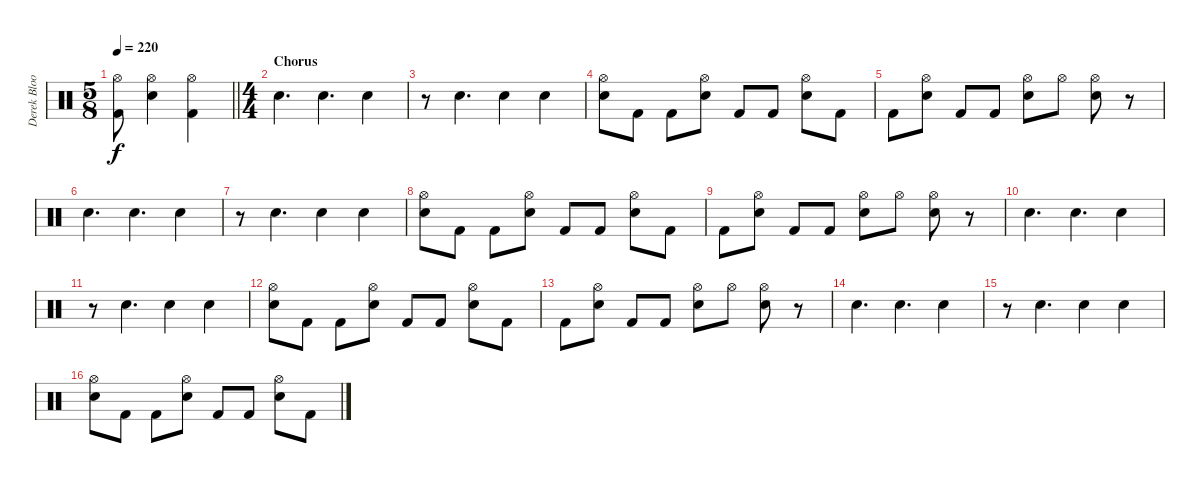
\track ("Derek Bloom - Drums" "Derek Bloo") {instrument percussion}
\staff {score}
\articulation defaults
\ts (5 8)
\section ("" "")
\tempo 220
\clef neutral
\barLineRight lightlight
\ks c
("Hi-Hat (open)" "Kick (hit) 2").8{dy f} ("Hi-Hat (open)" "Electric Snare (hit)").4 ("Hi-Hat (open)" "Kick (hit) 2").4 |
\ts (4 4)
\section ("" "Chorus")
"Electric Snare (hit)".4{d} "Electric Snare (hit)".4{d} "Electric Snare (hit)".4 |
r.8 "Electric Snare (hit)".4{d} "Electric Snare (hit)".4 "Electric Snare (hit)".4 |
("Hi-Hat (open)" "Electric Snare (hit)").8 "Kick (hit) 2".8 "Kick (hit) 2".8 ("Hi-Hat (open)" "Electric Snare (hit)").8 "Kick (hit) 2".8 "Kick (hit) 2".8 ("Hi-Hat (open)" "Electric Snare (hit)").8 "Kick (hit) 2".8 |
"Kick (hit) 2".8 ("Hi-Hat (open)" "Electric Snare (hit)").8 "Kick (hit) 2".8 "Kick (hit) 2".8 ("Hi-Hat (open)" "Electric Snare (hit)").8 "Hi-Hat (open)".8 ("Hi-Hat (open)" "Electric Snare (hit)").8 r.8 |
"Electric Snare (hit)".4{d} "Electric Snare (hit)".4{d} "Electric Snare (hit)".4 |
r.8 "Electric Snare (hit)".4{d} "Electric Snare (hit)".4 "Electric Snare (hit)".4 |
("Hi-Hat (open)" "Electric Snare (hit)").8 "Kick (hit) 2".8 "Kick (hit) 2".8 ("Hi-Hat (open)" "Electric Snare (hit)").8 "Kick (hit) 2".8 "Kick (hit) 2".8 ("Hi-Hat (open)" "Electric Snare (hit)").8 "Kick (hit) 2".8 |
"Kick (hit) 2".8 ("Hi-Hat (open)" "Electric Snare (hit)").8 "Kick (hit) 2".8 "Kick (hit) 2".8 ("Hi-Hat (open)" "Electric Snare (hit)").8 "Hi-Hat (open)".8 ("Hi-Hat (open)" "Electric Snare (hit)").8 r.8 |
"Electric Snare (hit)".4{d} "Electric Snare (hit)".4{d} "Electric Snare (hit)".4 |
r.8 "Electric Snare (hit)".4{d} "Electric Snare (hit)".4 "Electric Snare (hit)".4 |
("Hi-Hat (open)" "Electric Snare (hit)").8 "Kick (hit) 2".8 "Kick (hit) 2".8 ("Hi-Hat (open)" "Electric Snare (hit)").8 "Kick (hit) 2".8 "Kick (hit) 2".8 ("Hi-Hat (open)" "Electric Snare (hit)").8 "Kick (hit) 2".8 |
"Kick (hit) 2".8 ("Hi-Hat (open)" "Electric Snare (hit)").8 "Kick (hit) 2".8 "Kick (hit) 2".8 ("Hi-Hat (open)" "Electric Snare (hit)").8 "Hi-Hat (open)".8 ("Hi-Hat (open)" "Electric Snare (hit)").8 r.8 |
"Electric Snare (hit)".4{d} "Electric Snare (hit)".4{d} "Electric Snare (hit)".4 |
r.8 "Electric Snare (hit)".4{d} "Electric Snare (hit)".4 "Electric Snare (hit)".4 |
("Hi-Hat (open)" "Electric Snare (hit)").8 "Kick (hit) 2".8 "Kick (hit) 2".8 ("Hi-Hat (open)" "Electric Snare (hit)").8 "Kick (hit) 2".8 "Kick (hit) 2".8 ("Hi-Hat (open)" "Electric Snare (hit)").8 "Kick (hit) 2".8
